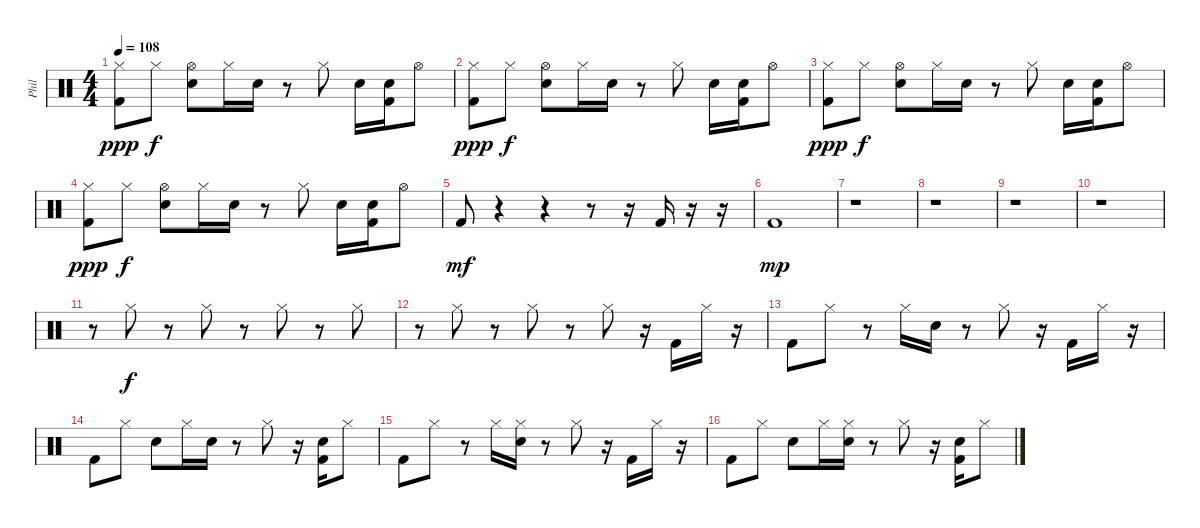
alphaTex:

\track ("Phil" "Phil") {instrument percussion}
\staff {score}
\articulation defaults
\ts (4 4)
\tempo 108
\clef neutral
\ks c
("Hi-Hat (closed)" "Kick (hit) 2").8{dy ppp} "Hi-Hat (closed)".8{dy f} ("Hi-Hat (open)" "Electric Snare (hit)").8 "Hi-Hat (closed)".16 "Electric Snare (hit)".16 r.8 "Hi-Hat (closed)".8 "Electric Snare (hit)".16 ("Electric Snare (hit)" "Kick (hit) 2").16 "Hi-Hat (open)".8 |
("Hi-Hat (closed)" "Kick (hit) 2").8{dy ppp} "Hi-Hat (closed)".8{dy f} ("Hi-Hat (open)" "Electric Snare (hit)").8 "Hi-Hat (closed)".16 "Electric Snare (hit)".16 r.8 "Hi-Hat (closed)".8 "Electric Snare (hit)".16 ("Electric Snare (hit)" "Kick (hit) 2").16 "Hi-Hat (open)".8 |
("Hi-Hat (closed)" "Kick (hit) 2").8{dy ppp} "Hi-Hat (closed)".8{dy f} ("Hi-Hat (open)" "Electric Snare (hit)").8 "Hi-Hat (closed)".16 "Electric Snare (hit)".16 r.8 "Hi-Hat (closed)".8 "Electric Snare (hit)".16 ("Electric Snare (hit)" "Kick (hit) 2").16 "Hi-Hat (open)".8 |
("Hi-Hat (closed)" "Kick (hit) 2").8{dy ppp} "Hi-Hat (closed)".8{dy f} ("Hi-Hat (open)" "Electric Snare (hit)").8 "Hi-Hat (closed)".16 "Electric Snare (hit)".16 r.8 "Hi-Hat (closed)".8 "Electric Snare (hit)".16 ("Electric Snare (hit)" "Kick (hit) 2").16 "Hi-Hat (open)".8 |
"Kick (hit) 2".8{dy mf} r.4 r.4 r.8 r.16 "Kick (hit) 2".16 r.16 r.16 |
"Kick (hit) 2".1{dy mp} |
r.1 |
r.1 |
r.1 |
r.1 |
r.8 "Hi-Hat (closed)".8{dy f} r.8 "Hi-Hat (closed)".8 r.8 "Hi-Hat (closed)".8 r.8 "Hi-Hat (closed)".8 |
r.8 "Hi-Hat (closed)".8 r.8 "Hi-Hat (closed)".8 r.8 "Hi-Hat (closed)".8 r.16 "Kick (hit) 2".16 "Hi-Hat (closed)".16 r.16 |
"Kick (hit) 2".8 "Hi-Hat (closed)".8 r.8 "Hi-Hat (closed)".16 "Electric Snare (hit)".16 r.8 "Hi-Hat (closed)".8 r.16 "Kick (hit) 2".16 "Hi-Hat (closed)".16 r.16 |
"Kick (hit) 2".8 "Hi-Hat (closed)".8 "Electric Snare (hit)".8 "Hi-Hat (closed)".16 "Electric Snare (hit)".16 r.8 "Hi-Hat (closed)".8 r.16 ("Electric Snare (hit)" "Kick (hit) 2").16 "Hi-Hat (closed)".8 |
"Kick (hit) 2".8 "Hi-Hat (closed)".8 r.8 "Hi-Hat (closed)".16 ("Hi-Hat (closed)" "Electric Snare (hit)").16 r.8 "Hi-Hat (closed)".8 r.16 "Kick (hit) 2".16 "Hi-Hat (closed)".16 r.16 |
"Kick (hit) 2".8 "Hi-Hat (closed)".8 "Electric Snare (hit)".8 "Hi-Hat (closed)".16 ("Hi-Hat (closed)" "Electric Snare (hit)").16 r.8 "Hi-Hat (closed)".8 r.16 ("Electric Snare (hit)" "Kick (hit) 2").16 "Hi-Hat (closed)".8
